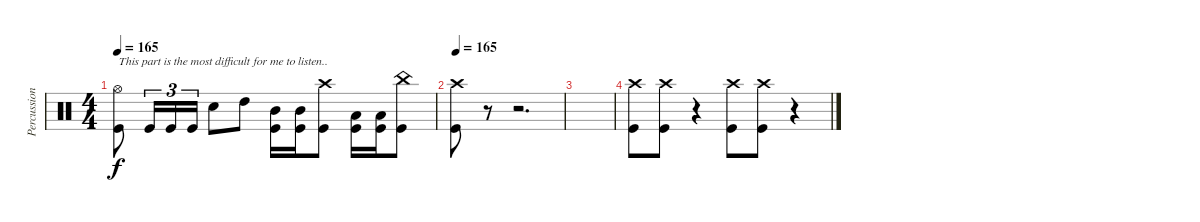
\track ("Percussioni" "Percussion") {instrument percussion}
\staff {score}
\articulation defaults
\ts (4 4)
\tempo 165
\clef neutral
\ks c
("Hi-Hat (open)" "Kick (hit)").8{txt "This part is the most difficult for me to listen.." dy f} "Kick (hit)".16{tu (3 2)} "Kick (hit)".16{tu (3 2)} "Kick (hit)".16{tu (3 2)} "Electric Snare (hit)".8 "High Tom (hit)".8 ("Mid Tom (hit)" "Kick (hit)").16 ("Mid Tom (hit)" "Kick (hit)").16 ("Crash high (hit)" "Kick (hit)").8 ("Low Tom (hit)" "Kick (hit)").16 ("Low Tom (hit)" "Kick (hit)").16 ("China (hit)" "Kick (hit)").8 |
\tempo 165
("Crash high (hit)" "Kick (hit)").8 r.8{volume 0} r.2{d} |
|
("Crash high (hit)" "Kick (hit)").8{volume 16} ("Crash high (hit)" "Kick (hit)").8 r.4 ("Crash high (hit)" "Kick (hit)").8 ("Crash high (hit)" "Kick (hit)").8 r.4
